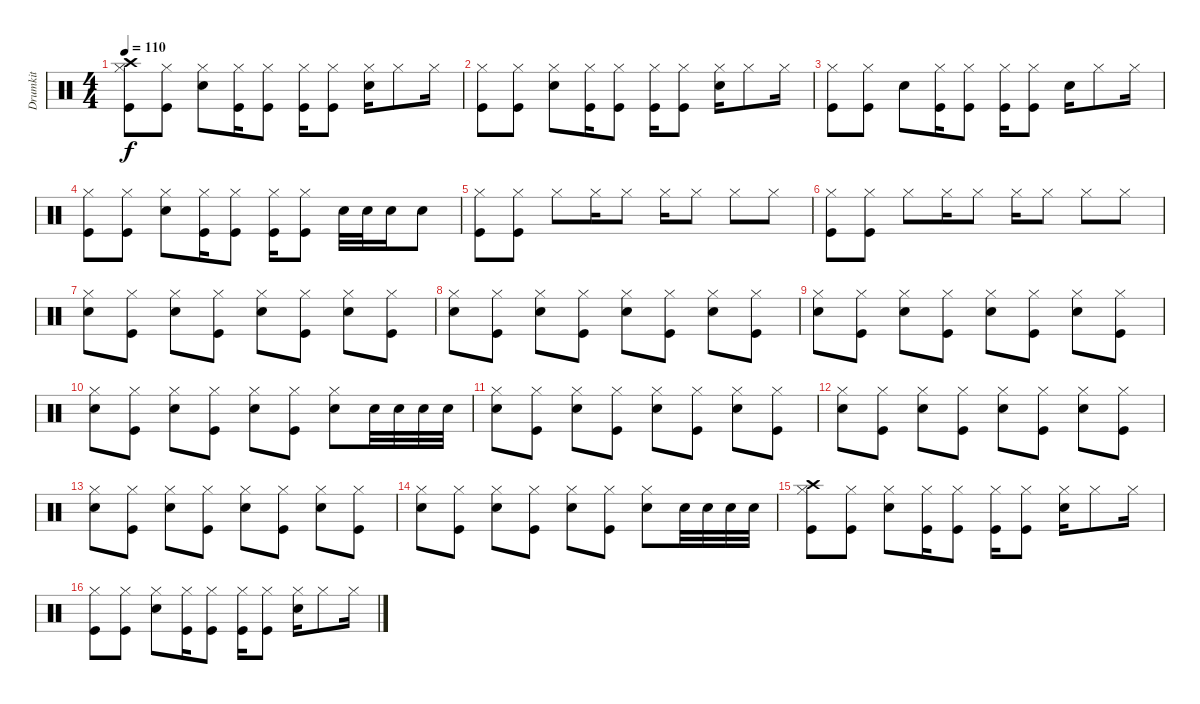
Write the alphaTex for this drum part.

\track ("Drumkit" "Drumkit") {instrument percussion}
\staff {score}
\articulation defaults
\ts (4 4)
\tempo 110
\clef neutral
\ks c
("Crash high (hit)" "Hi-Hat (closed)" "Kick (hit)").8{dy f} ("Hi-Hat (closed)" "Kick (hit)").8 ("Hi-Hat (closed)" "Snare (hit) 2").8 ("Hi-Hat (closed)" "Kick (hit)").16 ("Hi-Hat (closed)" "Kick (hit)").8 ("Hi-Hat (closed)" "Kick (hit)").16 ("Hi-Hat (closed)" "Kick (hit)").8 ("Hi-Hat (closed)" "Snare (hit) 2").16 "Hi-Hat (closed)".8 "Hi-Hat (closed)".16 |
("Hi-Hat (closed)" "Kick (hit)").8 ("Hi-Hat (closed)" "Kick (hit)").8 ("Hi-Hat (closed)" "Snare (hit) 2").8 ("Hi-Hat (closed)" "Kick (hit)").16 ("Hi-Hat (closed)" "Kick (hit)").8 ("Hi-Hat (closed)" "Kick (hit)").16 ("Hi-Hat (closed)" "Kick (hit)").8 ("Hi-Hat (closed)" "Snare (hit) 2").16 "Hi-Hat (closed)".8 "Hi-Hat (closed)".16 |
("Hi-Hat (closed)" "Kick (hit)").8 ("Hi-Hat (closed)" "Kick (hit)").8 "Snare (hit) 2".8 ("Hi-Hat (closed)" "Kick (hit)").16 ("Hi-Hat (closed)" "Kick (hit)").8 ("Hi-Hat (closed)" "Kick (hit)").16 ("Hi-Hat (closed)" "Kick (hit)").8 "Snare (hit) 2".16 "Hi-Hat (closed)".8 "Hi-Hat (closed)".16 |
("Hi-Hat (closed)" "Kick (hit)").8 ("Hi-Hat (closed)" "Kick (hit)").8 ("Hi-Hat (closed)" "Snare (hit) 2").8 ("Hi-Hat (closed)" "Kick (hit)").16 ("Hi-Hat (closed)" "Kick (hit)").8 ("Hi-Hat (closed)" "Kick (hit)").16 ("Hi-Hat (closed)" "Kick (hit)").8 "Snare (hit) 2".32 "Snare (hit) 2".32 "Snare (hit) 2".16 "Snare (hit) 2".8 |
("Hi-Hat (closed)" "Kick (hit)").8 ("Hi-Hat (closed)" "Kick (hit)").8 "Hi-Hat (closed)".8 "Hi-Hat (closed)".16 "Hi-Hat (closed)".8 "Hi-Hat (closed)".16 "Hi-Hat (closed)".8 "Hi-Hat (closed)".8 "Hi-Hat (closed)".8 |
("Hi-Hat (closed)" "Kick (hit)").8 ("Hi-Hat (closed)" "Kick (hit)").8 "Hi-Hat (closed)".8 "Hi-Hat (closed)".16 "Hi-Hat (closed)".8 "Hi-Hat (closed)".16 "Hi-Hat (closed)".8 "Hi-Hat (closed)".8 "Hi-Hat (closed)".8 |
("Hi-Hat (closed)" "Snare (hit) 2").8 ("Hi-Hat (closed)" "Kick (hit)").8 ("Hi-Hat (closed)" "Snare (hit) 2").8 ("Hi-Hat (closed)" "Kick (hit)").8 ("Hi-Hat (closed)" "Snare (hit) 2").8 ("Hi-Hat (closed)" "Kick (hit)").8 ("Hi-Hat (closed)" "Snare (hit) 2").8 ("Hi-Hat (closed)" "Kick (hit)").8 |
("Hi-Hat (closed)" "Snare (hit) 2").8 ("Hi-Hat (closed)" "Kick (hit)").8 ("Hi-Hat (closed)" "Snare (hit) 2").8 ("Hi-Hat (closed)" "Kick (hit)").8 ("Hi-Hat (closed)" "Snare (hit) 2").8 ("Hi-Hat (closed)" "Kick (hit)").8 ("Hi-Hat (closed)" "Snare (hit) 2").8 ("Hi-Hat (closed)" "Kick (hit)").8 |
("Hi-Hat (closed)" "Snare (hit) 2").8 ("Hi-Hat (closed)" "Kick (hit)").8 ("Hi-Hat (closed)" "Snare (hit) 2").8 ("Hi-Hat (closed)" "Kick (hit)").8 ("Hi-Hat (closed)" "Snare (hit) 2").8 ("Hi-Hat (closed)" "Kick (hit)").8 ("Hi-Hat (closed)" "Snare (hit) 2").8 ("Hi-Hat (closed)" "Kick (hit)").8 |
("Hi-Hat (closed)" "Snare (hit) 2").8 ("Hi-Hat (closed)" "Kick (hit)").8 ("Hi-Hat (closed)" "Snare (hit) 2").8 ("Hi-Hat (closed)" "Kick (hit)").8 ("Hi-Hat (closed)" "Snare (hit) 2").8 ("Hi-Hat (closed)" "Kick (hit)").8 ("Hi-Hat (closed)" "Snare (hit) 2").8 "Snare (hit) 2".32 "Snare (hit) 2".32 "Snare (hit) 2".32 "Snare (hit) 2".32 |
("Hi-Hat (closed)" "Snare (hit) 2").8 ("Hi-Hat (closed)" "Kick (hit)").8 ("Hi-Hat (closed)" "Snare (hit) 2").8 ("Hi-Hat (closed)" "Kick (hit)").8 ("Hi-Hat (closed)" "Snare (hit) 2").8 ("Hi-Hat (closed)" "Kick (hit)").8 ("Hi-Hat (closed)" "Snare (hit) 2").8 ("Hi-Hat (closed)" "Kick (hit)").8 |
("Hi-Hat (closed)" "Snare (hit) 2").8 ("Hi-Hat (closed)" "Kick (hit)").8 ("Hi-Hat (closed)" "Snare (hit) 2").8 ("Hi-Hat (closed)" "Kick (hit)").8 ("Hi-Hat (closed)" "Snare (hit) 2").8 ("Hi-Hat (closed)" "Kick (hit)").8 ("Hi-Hat (closed)" "Snare (hit) 2").8 ("Hi-Hat (closed)" "Kick (hit)").8 |
("Hi-Hat (closed)" "Snare (hit) 2").8 ("Hi-Hat (closed)" "Kick (hit)").8 ("Hi-Hat (closed)" "Snare (hit) 2").8 ("Hi-Hat (closed)" "Kick (hit)").8 ("Hi-Hat (closed)" "Snare (hit) 2").8 ("Hi-Hat (closed)" "Kick (hit)").8 ("Hi-Hat (closed)" "Snare (hit) 2").8 ("Hi-Hat (closed)" "Kick (hit)").8 |
("Hi-Hat (closed)" "Snare (hit) 2").8 ("Hi-Hat (closed)" "Kick (hit)").8 ("Hi-Hat (closed)" "Snare (hit) 2").8 ("Hi-Hat (closed)" "Kick (hit)").8 ("Hi-Hat (closed)" "Snare (hit) 2").8 ("Hi-Hat (closed)" "Kick (hit)").8 ("Hi-Hat (closed)" "Snare (hit) 2").8 "Snare (hit) 2".32 "Snare (hit) 2".32 "Snare (hit) 2".32 "Snare (hit) 2".32 |
("Crash high (hit)" "Hi-Hat (closed)" "Kick (hit)").8 ("Hi-Hat (closed)" "Kick (hit)").8 ("Hi-Hat (closed)" "Snare (hit) 2").8 ("Hi-Hat (closed)" "Kick (hit)").16 ("Hi-Hat (closed)" "Kick (hit)").8 ("Hi-Hat (closed)" "Kick (hit)").16 ("Hi-Hat (closed)" "Kick (hit)").8 ("Hi-Hat (closed)" "Snare (hit) 2").16 "Hi-Hat (closed)".8 "Hi-Hat (closed)".16 |
("Hi-Hat (closed)" "Kick (hit)").8 ("Hi-Hat (closed)" "Kick (hit)").8 ("Hi-Hat (closed)" "Snare (hit) 2").8 ("Hi-Hat (closed)" "Kick (hit)").16 ("Hi-Hat (closed)" "Kick (hit)").8 ("Hi-Hat (closed)" "Kick (hit)").16 ("Hi-Hat (closed)" "Kick (hit)").8 ("Hi-Hat (closed)" "Snare (hit) 2").16 "Hi-Hat (closed)".8 "Hi-Hat (closed)".16
